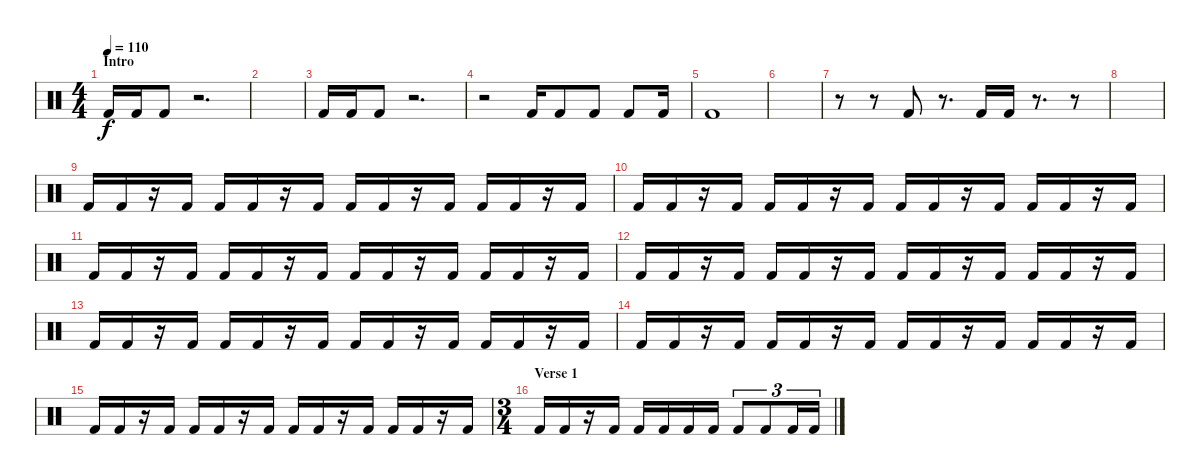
\track "" {instrument percussion}
\staff {score}
\articulation defaults
\ts (4 4)
\section ("" "Intro")
\tempo 110
\clef neutral
\ks c "Kick (hit) 2".16{dy f} "Kick (hit) 2".16 "Kick (hit) 2".8
r.2{d} |
|
"Kick (hit) 2".16 "Kick (hit) 2".16 "Kick (hit) 2".8 r.2{d} |
r.2 "Kick (hit) 2".16 "Kick (hit) 2".8 "Kick (hit) 2".8 "Kick (hit) 2".8 "Kick (hit) 2".16 |
"Kick (hit) 2".1 |
|
r.8 r.8 "Kick (hit) 2".8 r.8{d} "Kick (hit) 2".16 "Kick (hit) 2".16 r.8{d} r.8 |
|
"Kick (hit) 2".16 "Kick (hit) 2".16 r.16 "Kick (hit) 2".16 "Kick (hit) 2".16 "Kick (hit) 2".16 r.16 "Kick (hit) 2".16 "Kick (hit) 2".16 "Kick (hit) 2".16 r.16 "Kick (hit) 2".16 "Kick (hit) 2".16 "Kick (hit) 2".16 r.16 "Kick (hit) 2".16 |
"Kick (hit) 2".16 "Kick (hit) 2".16 r.16 "Kick (hit) 2".16 "Kick (hit) 2".16 "Kick (hit) 2".16 r.16 "Kick (hit) 2".16 "Kick (hit) 2".16 "Kick (hit) 2".16 r.16 "Kick (hit) 2".16 "Kick (hit) 2".16 "Kick (hit) 2".16 r.16 "Kick (hit) 2".16 |
"Kick (hit) 2".16 "Kick (hit) 2".16 r.16 "Kick (hit) 2".16 "Kick (hit) 2".16 "Kick (hit) 2".16 r.16 "Kick (hit) 2".16 "Kick (hit) 2".16 "Kick (hit) 2".16 r.16 "Kick (hit) 2".16 "Kick (hit) 2".16 "Kick (hit) 2".16 r.16 "Kick (hit) 2".16 |
"Kick (hit) 2".16 "Kick (hit) 2".16 r.16 "Kick (hit) 2".16 "Kick (hit) 2".16 "Kick (hit) 2".16 r.16 "Kick (hit) 2".16 "Kick (hit) 2".16 "Kick (hit) 2".16 r.16 "Kick (hit) 2".16 "Kick (hit) 2".16 "Kick (hit) 2".16 r.16 "Kick (hit) 2".16 |
"Kick (hit) 2".16 "Kick (hit) 2".16 r.16 "Kick (hit) 2".16 "Kick (hit) 2".16 "Kick (hit) 2".16 r.16 "Kick (hit) 2".16 "Kick (hit) 2".16 "Kick (hit) 2".16 r.16 "Kick (hit) 2".16 "Kick (hit) 2".16 "Kick (hit) 2".16 r.16 "Kick (hit) 2".16 |
"Kick (hit) 2".16 "Kick (hit) 2".16 r.16 "Kick (hit) 2".16 "Kick (hit) 2".16 "Kick (hit) 2".16 r.16 "Kick (hit) 2".16 "Kick (hit) 2".16 "Kick (hit) 2".16 r.16 "Kick (hit) 2".16 "Kick (hit) 2".16 "Kick (hit) 2".16 r.16 "Kick (hit) 2".16 |
"Kick (hit) 2".16 "Kick (hit) 2".16 r.16 "Kick (hit) 2".16 "Kick (hit) 2".16 "Kick (hit) 2".16 r.16 "Kick (hit) 2".16 "Kick (hit) 2".16 "Kick (hit) 2".16 r.16 "Kick (hit) 2".16 "Kick (hit) 2".16 "Kick (hit) 2".16 r.16 "Kick (hit) 2".16 |
\ts (3 4)
\section ("" "Verse 1")
"Kick (hit) 2".16 "Kick (hit) 2".16 r.16 "Kick (hit) 2".16 "Kick (hit) 2".16 "Kick (hit) 2".16 "Kick (hit) 2".16 "Kick (hit) 2".16 "Kick (hit) 2".8{tu (3 2)} "Kick (hit) 2".8{tu (3 2)} "Kick (hit) 2".16{tu (3 2)} "Kick (hit) 2".16{tu (3 2)}
